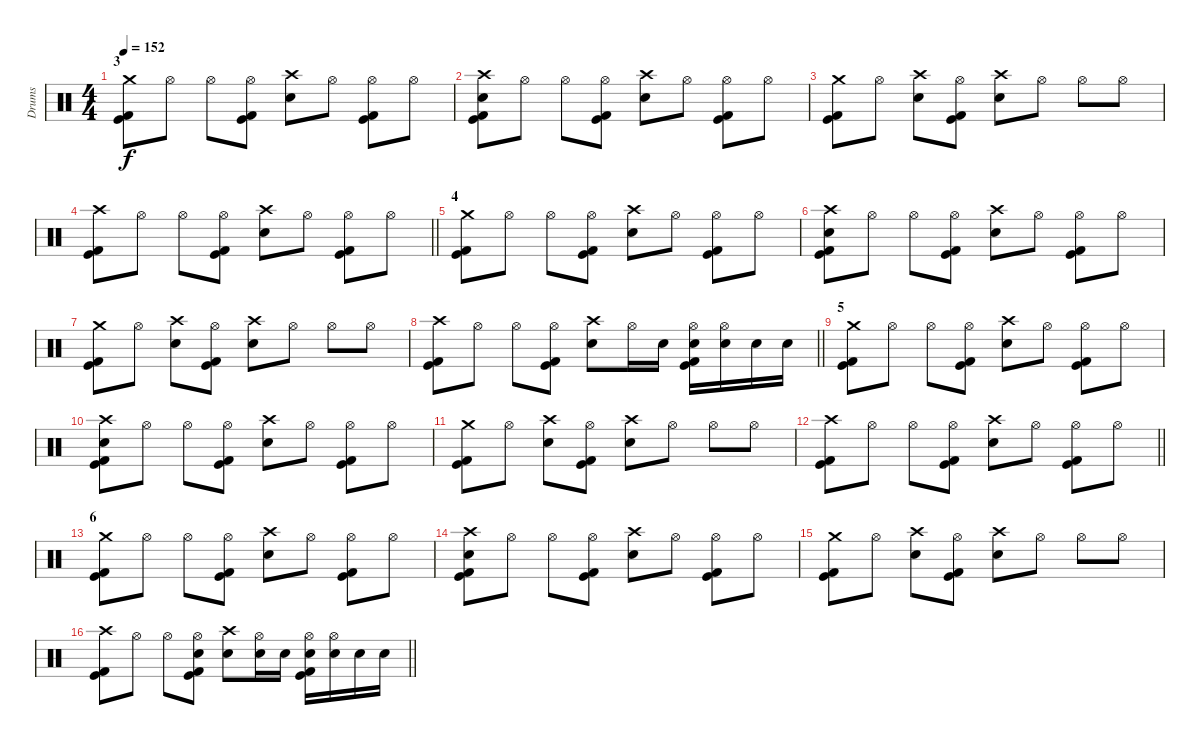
\track ("Drums" "Drums") {instrument percussion}
\staff {score}
\articulation defaults
\ts (4 4)
\section ("" "3")
\tempo 152
\clef neutral
\ks c
("Crash medium (hit)" "Kick (hit) 2" "Kick (hit)").8{dy f} "Hi-Hat (open)".8 "Hi-Hat (open)".8 ("Hi-Hat (open)" "Kick (hit) 2" "Kick (hit)").8 ("Crash high (hit)" "Electric Snare (hit)").8 "Hi-Hat (open)".8 ("Hi-Hat (open)" "Kick (hit) 2" "Kick (hit)").8 "Hi-Hat (open)".8 |
("Crash high (hit)" "Electric Snare (hit)" "Kick (hit) 2" "Kick (hit)").8 "Hi-Hat (open)".8 "Hi-Hat (open)".8 ("Hi-Hat (open)" "Kick (hit) 2" "Kick (hit)").8 ("Crash high (hit)" "Electric Snare (hit)").8 "Hi-Hat (open)".8 ("Hi-Hat (open)" "Kick (hit) 2" "Kick (hit)").8 "Hi-Hat (open)".8 |
("Crash medium (hit)" "Kick (hit) 2" "Kick (hit)").8 "Hi-Hat (open)".8 ("Crash high (hit)" "Electric Snare (hit)").8 ("Hi-Hat (open)" "Kick (hit) 2" "Kick (hit)").8 ("Crash high (hit)" "Electric Snare (hit)").8 "Hi-Hat (open)".8 "Hi-Hat (open)".8 "Hi-Hat (open)".8 |
\barLineRight lightlight
("Crash high (hit)" "Kick (hit) 2" "Kick (hit)").8 "Hi-Hat (open)".8 "Hi-Hat (open)".8 ("Hi-Hat (open)" "Kick (hit) 2" "Kick (hit)").8 ("Crash high (hit)" "Electric Snare (hit)").8 "Hi-Hat (open)".8 ("Hi-Hat (open)" "Kick (hit) 2" "Kick (hit)").8 "Hi-Hat (open)".8 |
\section ("" "4")
("Crash medium (hit)" "Kick (hit) 2" "Kick (hit)").8 "Hi-Hat (open)".8 "Hi-Hat (open)".8 ("Hi-Hat (open)" "Kick (hit) 2" "Kick (hit)").8 ("Crash high (hit)" "Electric Snare (hit)").8 "Hi-Hat (open)".8 ("Hi-Hat (open)" "Kick (hit) 2" "Kick (hit)").8 "Hi-Hat (open)".8 |
("Crash high (hit)" "Electric Snare (hit)" "Kick (hit) 2" "Kick (hit)").8 "Hi-Hat (open)".8 "Hi-Hat (open)".8 ("Hi-Hat (open)" "Kick (hit) 2" "Kick (hit)").8 ("Crash high (hit)" "Electric Snare (hit)").8 "Hi-Hat (open)".8 ("Hi-Hat (open)" "Kick (hit) 2" "Kick (hit)").8 "Hi-Hat (open)".8 |
("Crash medium (hit)" "Kick (hit) 2" "Kick (hit)").8 "Hi-Hat (open)".8 ("Crash high (hit)" "Electric Snare (hit)").8 ("Hi-Hat (open)" "Kick (hit) 2" "Kick (hit)").8 ("Crash high (hit)" "Electric Snare (hit)").8 "Hi-Hat (open)".8 "Hi-Hat (open)".8 "Hi-Hat (open)".8 |
\barLineRight lightlight
("Crash high (hit)" "Kick (hit) 2" "Kick (hit)").8 "Hi-Hat (open)".8 "Hi-Hat (open)".8 ("Hi-Hat (open)" "Kick (hit) 2" "Kick (hit)").8 ("Crash high (hit)" "Electric Snare (hit)").8 "Hi-Hat (open)".16 "Electric Snare (hit)".16 ("Hi-Hat (open)" "Electric Snare (hit)" "Kick (hit) 2" "Kick (hit)").16 ("Hi-Hat (open)" "Electric Snare (hit)").16 "Electric Snare (hit)".16 "Electric Snare (hit)".16 |
\section ("" "5")
("Crash medium (hit)" "Kick (hit) 2" "Kick (hit)").8 "Hi-Hat (open)".8 "Hi-Hat (open)".8 ("Hi-Hat (open)" "Kick (hit) 2" "Kick (hit)").8 ("Crash high (hit)" "Electric Snare (hit)").8 "Hi-Hat (open)".8 ("Hi-Hat (open)" "Kick (hit) 2" "Kick (hit)").8 "Hi-Hat (open)".8 |
("Crash high (hit)" "Electric Snare (hit)" "Kick (hit) 2" "Kick (hit)").8 "Hi-Hat (open)".8 "Hi-Hat (open)".8 ("Hi-Hat (open)" "Kick (hit) 2" "Kick (hit)").8 ("Crash high (hit)" "Electric Snare (hit)").8 "Hi-Hat (open)".8 ("Hi-Hat (open)" "Kick (hit) 2" "Kick (hit)").8 "Hi-Hat (open)".8 |
("Crash medium (hit)" "Kick (hit) 2" "Kick (hit)").8 "Hi-Hat (open)".8 ("Crash high (hit)" "Electric Snare (hit)").8 ("Hi-Hat (open)" "Kick (hit) 2" "Kick (hit)").8 ("Crash high (hit)" "Electric Snare (hit)").8 "Hi-Hat (open)".8 "Hi-Hat (open)".8 "Hi-Hat (open)".8 |
\barLineRight lightlight
("Crash high (hit)" "Kick (hit) 2" "Kick (hit)").8 "Hi-Hat (open)".8 "Hi-Hat (open)".8 ("Hi-Hat (open)" "Kick (hit) 2" "Kick (hit)").8 ("Crash high (hit)" "Electric Snare (hit)").8 "Hi-Hat (open)".8 ("Hi-Hat (open)" "Kick (hit) 2" "Kick (hit)").8 "Hi-Hat (open)".8 |
\section ("" "6")
("Crash medium (hit)" "Kick (hit) 2" "Kick (hit)").8 "Hi-Hat (open)".8 "Hi-Hat (open)".8 ("Hi-Hat (open)" "Kick (hit) 2" "Kick (hit)").8 ("Crash high (hit)" "Electric Snare (hit)").8 "Hi-Hat (open)".8 ("Hi-Hat (open)" "Kick (hit) 2" "Kick (hit)").8 "Hi-Hat (open)".8 |
("Crash high (hit)" "Electric Snare (hit)" "Kick (hit) 2" "Kick (hit)").8 "Hi-Hat (open)".8 "Hi-Hat (open)".8 ("Hi-Hat (open)" "Kick (hit) 2" "Kick (hit)").8 ("Crash high (hit)" "Electric Snare (hit)").8 "Hi-Hat (open)".8 ("Hi-Hat (open)" "Kick (hit) 2" "Kick (hit)").8 "Hi-Hat (open)".8 |
("Crash medium (hit)" "Kick (hit) 2" "Kick (hit)").8 "Hi-Hat (open)".8 ("Crash high (hit)" "Electric Snare (hit)").8 ("Hi-Hat (open)" "Kick (hit) 2" "Kick (hit)").8 ("Crash high (hit)" "Electric Snare (hit)").8 "Hi-Hat (open)".8 "Hi-Hat (open)".8 "Hi-Hat (open)".8 |
\barLineRight lightlight
("Crash high (hit)" "Kick (hit) 2" "Kick (hit)").8 "Hi-Hat (open)".8 "Hi-Hat (open)".8 ("Hi-Hat (open)" "Electric Snare (hit)" "Kick (hit) 2" "Kick (hit)").8 ("Crash high (hit)" "Electric Snare (hit)").8 ("Hi-Hat (open)" "Electric Snare (hit)").16 "Electric Snare (hit)".16 ("Hi-Hat (open)" "Electric Snare (hit)" "Kick (hit) 2" "Kick (hit)").16 ("Hi-Hat (open)" "Electric Snare (hit)").16 "Electric Snare (hit)".16 "Electric Snare (hit)".16
